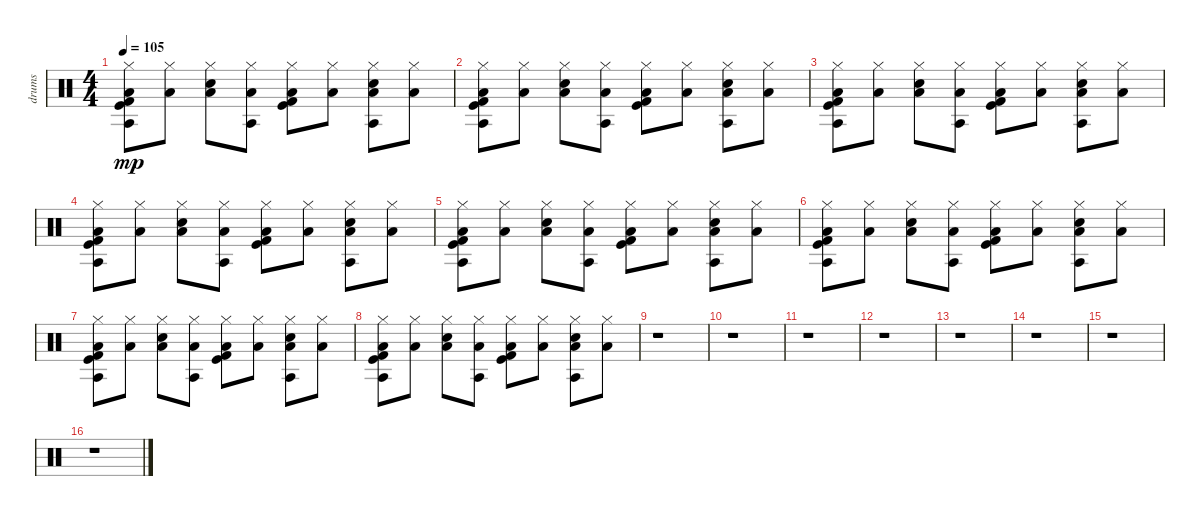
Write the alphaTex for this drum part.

\track ("drums" "drums") {instrument percussion}
\staff {score}
\articulation defaults
\ts (4 4)
\tempo 105
\clef neutral
\ks c
("Hi-Hat (closed)" "Agogo tow (hit)" "Kick (hit)" "Kick (hit) 2" "Low Floor Tom (hit)").8{dy mp} ("Hi-Hat (closed)" "Low Floor Tom (hit)").8 ("Electric Snare (hit)" "Hi-Hat (closed)" "Low Floor Tom (hit)").8 ("Hi-Hat (closed)" "Agogo tow (hit)" "Low Floor Tom (hit)").8 ("Kick (hit)" "Hi-Hat (closed)" "Kick (hit) 2" "Low Floor Tom (hit)").8 ("Hi-Hat (closed)" "Low Floor Tom (hit)").8 ("Agogo tow (hit)" "Hi-Hat (closed)" "Electric Snare (hit)" "Low Floor Tom (hit)").8 ("Hi-Hat (closed)" "Low Floor Tom (hit)").8 |
("Kick (hit)" "Kick (hit) 2" "Agogo tow (hit)" "Hi-Hat (closed)" "Low Floor Tom (hit)").8 ("Hi-Hat (closed)" "Low Floor Tom (hit)").8 ("Hi-Hat (closed)" "Electric Snare (hit)" "Low Floor Tom (hit)").8 ("Agogo tow (hit)" "Hi-Hat (closed)" "Low Floor Tom (hit)").8 ("Kick (hit) 2" "Kick (hit)" "Hi-Hat (closed)" "Low Floor Tom (hit)").8 ("Hi-Hat (closed)" "Low Floor Tom (hit)").8 ("Agogo tow (hit)" "Hi-Hat (closed)" "Electric Snare (hit)" "Low Floor Tom (hit)").8 ("Hi-Hat (closed)" "Low Floor Tom (hit)").8 |
("Kick (hit)" "Kick (hit) 2" "Hi-Hat (closed)" "Agogo tow (hit)" "Low Floor Tom (hit)").8 ("Hi-Hat (closed)" "Low Floor Tom (hit)").8 ("Hi-Hat (closed)" "Electric Snare (hit)" "Low Floor Tom (hit)").8 ("Hi-Hat (closed)" "Agogo tow (hit)" "Low Floor Tom (hit)").8 ("Kick (hit)" "Kick (hit) 2" "Hi-Hat (closed)" "Low Floor Tom (hit)").8 ("Hi-Hat (closed)" "Low Floor Tom (hit)").8 ("Hi-Hat (closed)" "Agogo tow (hit)" "Electric Snare (hit)" "Low Floor Tom (hit)").8 ("Hi-Hat (closed)" "Low Floor Tom (hit)").8 |
("Kick (hit) 2" "Kick (hit)" "Agogo tow (hit)" "Hi-Hat (closed)" "Low Floor Tom (hit)").8 ("Hi-Hat (closed)" "Low Floor Tom (hit)").8 ("Hi-Hat (closed)" "Electric Snare (hit)" "Low Floor Tom (hit)").8 ("Agogo tow (hit)" "Hi-Hat (closed)" "Low Floor Tom (hit)").8 ("Kick (hit)" "Kick (hit) 2" "Hi-Hat (closed)" "Low Floor Tom (hit)").8 ("Hi-Hat (closed)" "Low Floor Tom (hit)").8 ("Agogo tow (hit)" "Hi-Hat (closed)" "Electric Snare (hit)" "Low Floor Tom (hit)").8 ("Hi-Hat (closed)" "Low Floor Tom (hit)").8 |
("Kick (hit)" "Kick (hit) 2" "Agogo tow (hit)" "Hi-Hat (closed)" "Low Floor Tom (hit)").8 ("Hi-Hat (closed)" "Low Floor Tom (hit)").8 ("Hi-Hat (closed)" "Electric Snare (hit)" "Low Floor Tom (hit)").8 ("Agogo tow (hit)" "Hi-Hat (closed)" "Low Floor Tom (hit)").8 ("Kick (hit) 2" "Kick (hit)" "Hi-Hat (closed)" "Low Floor Tom (hit)").8 ("Hi-Hat (closed)" "Low Floor Tom (hit)").8 ("Agogo tow (hit)" "Hi-Hat (closed)" "Electric Snare (hit)" "Low Floor Tom (hit)").8 ("Hi-Hat (closed)" "Low Floor Tom (hit)").8 |
("Kick (hit)" "Kick (hit) 2" "Agogo tow (hit)" "Hi-Hat (closed)" "Low Floor Tom (hit)").8 ("Hi-Hat (closed)" "Low Floor Tom (hit)").8 ("Hi-Hat (closed)" "Electric Snare (hit)" "Low Floor Tom (hit)").8 ("Agogo tow (hit)" "Hi-Hat (closed)" "Low Floor Tom (hit)").8 ("Kick (hit)" "Kick (hit) 2" "Hi-Hat (closed)" "Low Floor Tom (hit)").8 ("Hi-Hat (closed)" "Low Floor Tom (hit)").8 ("Agogo tow (hit)" "Hi-Hat (closed)" "Electric Snare (hit)" "Low Floor Tom (hit)").8 ("Hi-Hat (closed)" "Low Floor Tom (hit)").8 |
("Kick (hit) 2" "Kick (hit)" "Hi-Hat (closed)" "Agogo tow (hit)" "Low Floor Tom (hit)").8 ("Hi-Hat (closed)" "Low Floor Tom (hit)").8 ("Hi-Hat (closed)" "Electric Snare (hit)" "Low Floor Tom (hit)").8 ("Hi-Hat (closed)" "Agogo tow (hit)" "Low Floor Tom (hit)").8 ("Kick (hit)" "Kick (hit) 2" "Hi-Hat (closed)" "Low Floor Tom (hit)").8 ("Hi-Hat (closed)" "Low Floor Tom (hit)").8 ("Hi-Hat (closed)" "Agogo tow (hit)" "Electric Snare (hit)" "Low Floor Tom (hit)").8 ("Hi-Hat (closed)" "Low Floor Tom (hit)").8 |
("Kick (hit)" "Kick (hit) 2" "Agogo tow (hit)" "Hi-Hat (closed)" "Low Floor Tom (hit)").8 ("Hi-Hat (closed)" "Low Floor Tom (hit)").8 ("Hi-Hat (closed)" "Electric Snare (hit)" "Low Floor Tom (hit)").8 ("Agogo tow (hit)" "Hi-Hat (closed)" "Low Floor Tom (hit)").8 ("Kick (hit)" "Kick (hit) 2" "Hi-Hat (closed)" "Low Floor Tom (hit)").8 ("Hi-Hat (closed)" "Low Floor Tom (hit)").8 ("Agogo tow (hit)" "Hi-Hat (closed)" "Electric Snare (hit)" "Low Floor Tom (hit)").8 ("Hi-Hat (closed)" "Low Floor Tom (hit)").8 |
r.1 |
r.1 |
r.1 |
r.1 |
r.1 |
r.1 |
r.1 |
r.1
